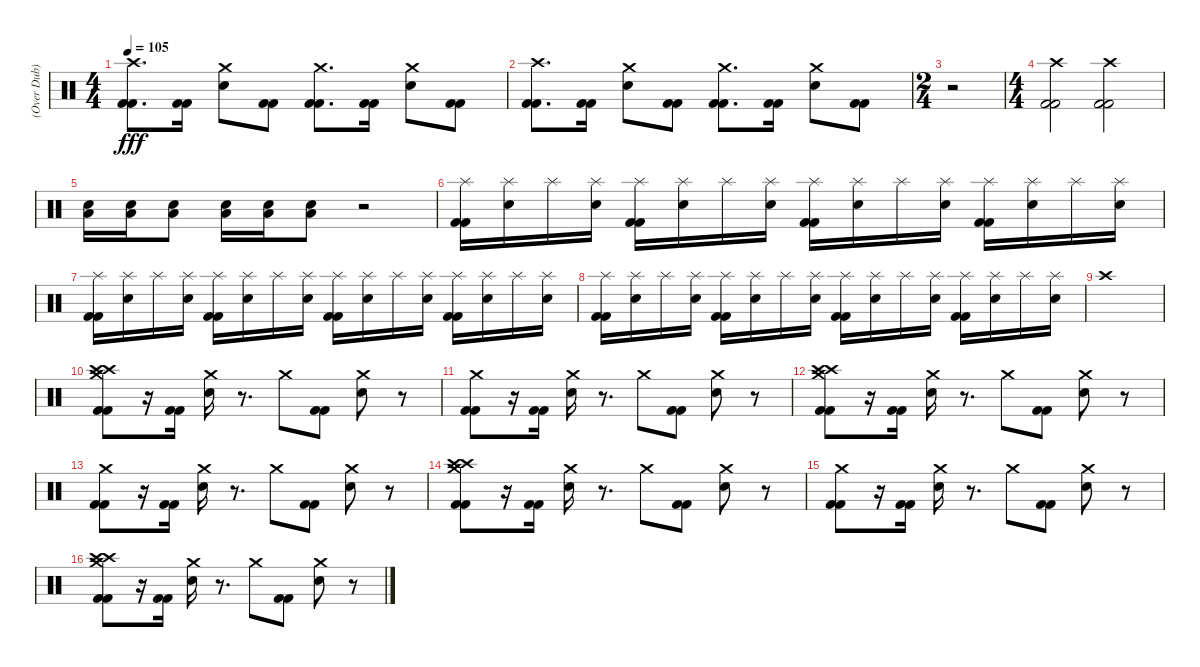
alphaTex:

\track ("(Over Dub)" "(Over Dub)") {instrument percussion}
\staff {score}
\articulation defaults
\ts (4 4)
\tempo 105
\clef neutral
\ks c
("Crash high (hit)" "Kick (hit) 2" "Kick (hit) 2").8{d dy fff} ("Kick (hit) 2" "Kick (hit) 2").16 ("Crash medium (hit)" "Electric Snare (hit)").8 ("Kick (hit) 2" "Kick (hit) 2").8 ("Crash medium (hit)" "Kick (hit) 2" "Kick (hit) 2").8{d} ("Kick (hit) 2" "Kick (hit) 2").16 ("Crash medium (hit)" "Electric Snare (hit)").8 ("Kick (hit) 2" "Kick (hit) 2").8 |
("Crash high (hit)" "Kick (hit) 2" "Kick (hit) 2").8{d} ("Kick (hit) 2" "Kick (hit) 2").16 ("Crash medium (hit)" "Electric Snare (hit)").8 ("Kick (hit) 2" "Kick (hit) 2").8 ("Crash medium (hit)" "Kick (hit) 2" "Kick (hit) 2").8{d} ("Kick (hit) 2" "Kick (hit) 2").16 ("Crash medium (hit)" "Electric Snare (hit)").8 ("Kick (hit) 2" "Kick (hit) 2").8 |
\ts (2 4)
r.2 |
\ts (4 4)
("Crash high (hit)" "Kick (hit) 2" "Kick (hit) 2").2 ("Crash high (hit)" "Kick (hit) 2" "Kick (hit) 2").2 |
("Electric Snare (hit)" "Low Floor Tom (hit)").16 ("Electric Snare (hit)" "Low Floor Tom (hit)").16 ("Electric Snare (hit)" "Low Floor Tom (hit)").8 ("Electric Snare (hit)" "Low Floor Tom (hit)").16 ("Electric Snare (hit)" "Low Floor Tom (hit)").16 ("Electric Snare (hit)" "Low Floor Tom (hit)").8 r.2 |
("Splash (hit)" "Kick (hit) 2" "Kick (hit) 2").16 ("Splash (hit)" "Electric Snare (hit)").16 "Splash (hit)".16 ("Splash (hit)" "Electric Snare (hit)").16 ("Splash (hit)" "Kick (hit) 2" "Kick (hit) 2").16 ("Splash (hit)" "Electric Snare (hit)").16 "Splash (hit)".16 ("Splash (hit)" "Electric Snare (hit)").16 ("Splash (hit)" "Kick (hit) 2" "Kick (hit) 2").16 ("Splash (hit)" "Electric Snare (hit)").16 "Splash (hit)".16 ("Splash (hit)" "Electric Snare (hit)").16 ("Splash (hit)" "Kick (hit) 2" "Kick (hit) 2").16 ("Splash (hit)" "Electric Snare (hit)").16 "Splash (hit)".16 ("Splash (hit)" "Electric Snare (hit)").16 |
("Splash (hit)" "Kick (hit) 2" "Kick (hit) 2").16 ("Splash (hit)" "Electric Snare (hit)").16 "Splash (hit)".16 ("Splash (hit)" "Electric Snare (hit)").16 ("Splash (hit)" "Kick (hit) 2" "Kick (hit) 2").16 ("Splash (hit)" "Electric Snare (hit)").16 "Splash (hit)".16 ("Splash (hit)" "Electric Snare (hit)").16 ("Splash (hit)" "Kick (hit) 2" "Kick (hit) 2").16 ("Splash (hit)" "Electric Snare (hit)").16 "Splash (hit)".16 ("Splash (hit)" "Electric Snare (hit)").16 ("Splash (hit)" "Kick (hit) 2" "Kick (hit) 2").16 ("Splash (hit)" "Electric Snare (hit)").16 "Splash (hit)".16 ("Splash (hit)" "Electric Snare (hit)").16 |
("Splash (hit)" "Kick (hit) 2" "Kick (hit) 2").16 ("Splash (hit)" "Electric Snare (hit)").16 "Splash (hit)".16 ("Splash (hit)" "Electric Snare (hit)").16 ("Splash (hit)" "Kick (hit) 2" "Kick (hit) 2").16 ("Splash (hit)" "Electric Snare (hit)").16 "Splash (hit)".16 ("Splash (hit)" "Electric Snare (hit)").16 ("Splash (hit)" "Kick (hit) 2" "Kick (hit) 2").16 ("Splash (hit)" "Electric Snare (hit)").16 "Splash (hit)".16 ("Splash (hit)" "Electric Snare (hit)").16 ("Splash (hit)" "Kick (hit) 2" "Kick (hit) 2").16 ("Splash (hit)" "Electric Snare (hit)").16 "Splash (hit)".16 ("Splash (hit)" "Electric Snare (hit)").16 |
"Crash high (hit)".1 |
("Crash high (hit)" "Crash high (hit)" "Crash medium (hit)" "Kick (hit) 2" "Kick (hit) 2").8 r.16 ("Kick (hit) 2" "Kick (hit) 2").16 ("Crash medium (hit)" "Electric Snare (hit)").16 r.8{d} "Crash medium (hit)".8 ("Kick (hit) 2" "Kick (hit) 2").8 ("Crash medium (hit)" "Electric Snare (hit)").8 r.8 |
("Crash medium (hit)" "Kick (hit) 2" "Kick (hit) 2").8 r.16 ("Kick (hit) 2" "Kick (hit) 2").16 ("Crash medium (hit)" "Electric Snare (hit)").16 r.8{d} "Crash medium (hit)".8 ("Kick (hit) 2" "Kick (hit) 2").8 ("Crash medium (hit)" "Electric Snare (hit)").8 r.8 |
("Crash high (hit)" "Crash high (hit)" "Crash medium (hit)" "Kick (hit) 2" "Kick (hit) 2").8 r.16 ("Kick (hit) 2" "Kick (hit) 2").16 ("Crash medium (hit)" "Electric Snare (hit)").16 r.8{d} "Crash medium (hit)".8 ("Kick (hit) 2" "Kick (hit) 2").8 ("Crash medium (hit)" "Electric Snare (hit)").8 r.8 |
("Crash medium (hit)" "Kick (hit) 2" "Kick (hit) 2").8 r.16 ("Kick (hit) 2" "Kick (hit) 2").16 ("Crash medium (hit)" "Electric Snare (hit)").16 r.8{d} "Crash medium (hit)".8 ("Kick (hit) 2" "Kick (hit) 2").8 ("Crash medium (hit)" "Electric Snare (hit)").8 r.8 |
("Crash high (hit)" "Crash high (hit)" "Crash medium (hit)" "Kick (hit) 2" "Kick (hit) 2").8 r.16 ("Kick (hit) 2" "Kick (hit) 2").16 ("Crash medium (hit)" "Electric Snare (hit)").16 r.8{d} "Crash medium (hit)".8 ("Kick (hit) 2" "Kick (hit) 2").8 ("Crash medium (hit)" "Electric Snare (hit)").8 r.8 |
("Crash medium (hit)" "Kick (hit) 2" "Kick (hit) 2").8 r.16 ("Kick (hit) 2" "Kick (hit) 2").16 ("Crash medium (hit)" "Electric Snare (hit)").16 r.8{d} "Crash medium (hit)".8 ("Kick (hit) 2" "Kick (hit) 2").8 ("Crash medium (hit)" "Electric Snare (hit)").8 r.8 |
("Crash high (hit)" "Crash high (hit)" "Crash medium (hit)" "Kick (hit) 2" "Kick (hit) 2").8 r.16 ("Kick (hit) 2" "Kick (hit) 2").16 ("Crash medium (hit)" "Electric Snare (hit)").16 r.8{d} "Crash medium (hit)".8 ("Kick (hit) 2" "Kick (hit) 2").8 ("Crash medium (hit)" "Electric Snare (hit)").8 r.8
